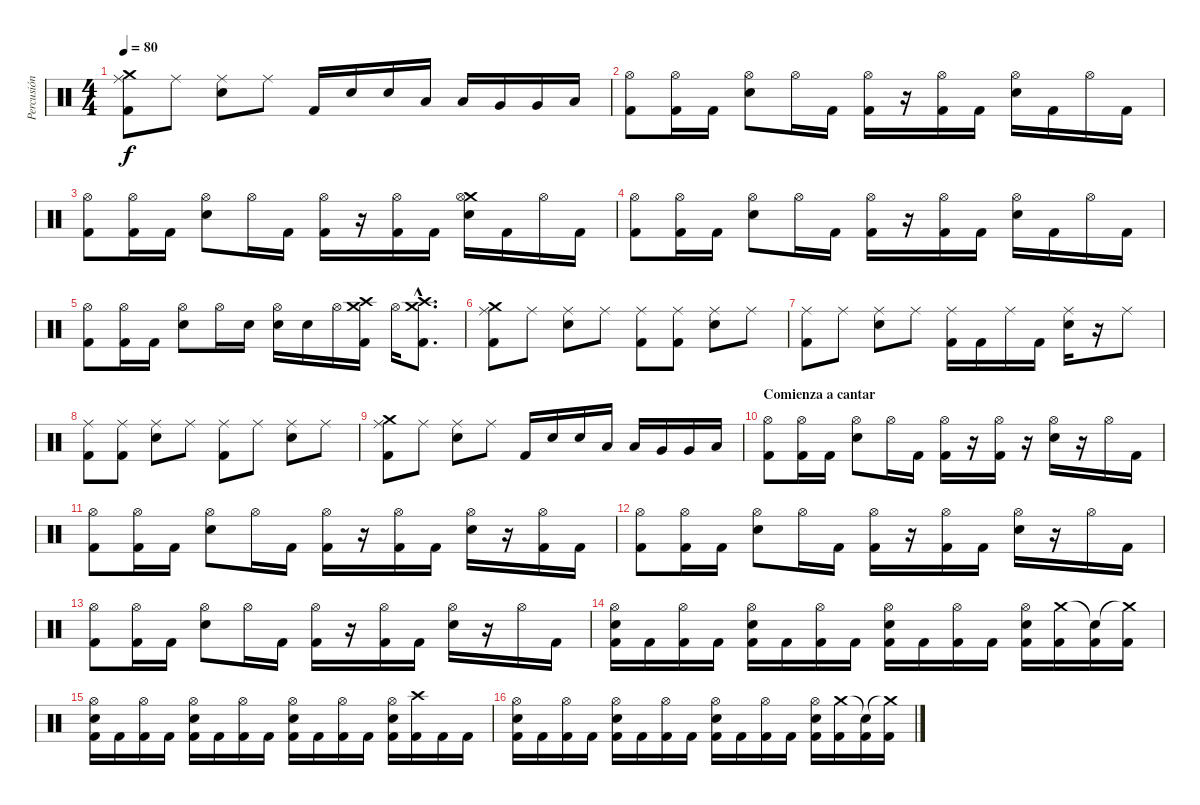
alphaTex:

\track ("Percusión" "Percusión") {instrument percussion}
\staff {score}
\articulation defaults
\ts (4 4)
\tempo 80
\clef neutral
\ks c
("Kick (hit) 2" "Crash medium (hit)" "Ride (middle)").8{dy f} "Ride (middle)".8 ("Electric Snare (hit)" "Ride (middle)").8 "Ride (middle)".8 "Kick (hit) 2".16 "Snare (hit) 2".16 "Snare (hit) 2".16 "Low Tom (hit)".16 "Low Tom (hit)".16 "Very Low Tom (hit)".16 "Very Low Tom (hit)".16 "Low Floor Tom (hit)".16 |
("Kick (hit) 2" "Hi-Hat (open)").8 ("Kick (hit) 2" "Hi-Hat (open)").16 "Kick (hit) 2".16 ("Electric Snare (hit)" "Hi-Hat (open)").8 "Hi-Hat (open)".16 "Kick (hit) 2".16 ("Kick (hit) 2" "Hi-Hat (open)").16 r.16 ("Kick (hit) 2" "Hi-Hat (open)").16 "Kick (hit) 2".16 ("Electric Snare (hit)" "Hi-Hat (open)").16 "Kick (hit) 2".16 "Hi-Hat (open)".16 "Kick (hit) 2".16 |
("Kick (hit) 2" "Hi-Hat (open)").8 ("Kick (hit) 2" "Hi-Hat (open)").16 "Kick (hit) 2".16 ("Electric Snare (hit)" "Hi-Hat (open)").8 "Hi-Hat (open)".16 "Kick (hit) 2".16 ("Kick (hit) 2" "Hi-Hat (open)").16 r.16 ("Kick (hit) 2" "Hi-Hat (open)").16 "Kick (hit) 2".16 ("Electric Snare (hit)" "Crash medium (hit)" "Hi-Hat (open)").16 "Kick (hit) 2".16 "Hi-Hat (open)".16 "Kick (hit) 2".16 |
("Kick (hit) 2" "Hi-Hat (open)").8 ("Kick (hit) 2" "Hi-Hat (open)").16 "Kick (hit) 2".16 ("Electric Snare (hit)" "Hi-Hat (open)").8 "Hi-Hat (open)".16 "Kick (hit) 2".16 ("Kick (hit) 2" "Hi-Hat (open)").16 r.16 ("Kick (hit) 2" "Hi-Hat (open)").16 "Kick (hit) 2".16 ("Electric Snare (hit)" "Hi-Hat (open)").16 "Kick (hit) 2".16 "Hi-Hat (open)".16 "Kick (hit) 2".16 |
("Kick (hit) 2" "Hi-Hat (open)").8 ("Kick (hit) 2" "Hi-Hat (open)").16 "Kick (hit) 2".16 ("Electric Snare (hit)" "Hi-Hat (open)").8 "Hi-Hat (open)".16 "Electric Snare (hit)".16 ("Electric Snare (hit)" "Hi-Hat (open)").16 "Electric Snare (hit)".16 "Hi-Hat (open)".16 ("Kick (hit) 2" "Crash high (hit)" "Crash medium (hit)").16 "Hi-Hat (open)".16 ("Kick (hit) 2"{hac} "Crash high (hit)"{hac} "Crash medium (hit)"{hac}).8{d} |
("Kick (hit) 2" "Crash medium (hit)" "Ride (middle)").8 "Ride (middle)".8 ("Electric Snare (hit)" "Ride (middle)").8 "Ride (middle)".8 ("Kick (hit) 2" "Ride (middle)").8 ("Kick (hit) 2" "Ride (middle)").8 ("Electric Snare (hit)" "Ride (middle)").8 "Ride (middle)".8 |
("Kick (hit) 2" "Ride (middle)").8 "Ride (middle)".8 ("Electric Snare (hit)" "Ride (middle)").8 "Ride (middle)".8 ("Kick (hit) 2" "Ride (middle)").16 "Kick (hit) 2".16 "Ride (middle)".16 "Kick (hit) 2".16 ("Electric Snare (hit)" "Ride (middle)").16 r.16 "Ride (middle)".8 |
("Kick (hit) 2" "Ride (middle)").8 ("Kick (hit) 2" "Ride (middle)").8 ("Electric Snare (hit)" "Ride (middle)").8 "Ride (middle)".8 ("Kick (hit) 2" "Ride (middle)").8 "Ride (middle)".8 ("Electric Snare (hit)" "Ride (middle)").8 "Ride (middle)".8 |
("Kick (hit) 2" "Crash medium (hit)" "Ride (middle)").8 "Ride (middle)".8 ("Electric Snare (hit)" "Ride (middle)").8 "Ride (middle)".8 "Kick (hit) 2".16 "Snare (hit) 2".16 "Snare (hit) 2".16 "Low Tom (hit)".16 "Low Tom (hit)".16 "Very Low Tom (hit)".16 "Very Low Tom (hit)".16 "Low Floor Tom (hit)".16 |
\section ("" "Comienza a cantar")
("Kick (hit) 2" "Hi-Hat (open)").8 ("Kick (hit) 2" "Hi-Hat (open)").16 "Kick (hit) 2".16 ("Electric Snare (hit)" "Hi-Hat (open)").8 "Hi-Hat (open)".16 "Kick (hit) 2".16 ("Kick (hit) 2" "Hi-Hat (open)").16 r.16 ("Kick (hit) 2" "Hi-Hat (open)").16 r.16 ("Electric Snare (hit)" "Hi-Hat (open)").16 r.16 "Hi-Hat (open)".16 "Kick (hit) 2".16 |
("Kick (hit) 2" "Hi-Hat (open)").8 ("Kick (hit) 2" "Hi-Hat (open)").16 "Kick (hit) 2".16 ("Electric Snare (hit)" "Hi-Hat (open)").8 "Hi-Hat (open)".16 "Kick (hit) 2".16 ("Kick (hit) 2" "Hi-Hat (open)").16 r.16 ("Kick (hit) 2" "Hi-Hat (open)").16 "Kick (hit) 2".16 ("Electric Snare (hit)" "Hi-Hat (open)").16 r.16 ("Kick (hit) 2" "Hi-Hat (open)").16 "Kick (hit) 2".16 |
("Kick (hit) 2" "Hi-Hat (open)").8 ("Kick (hit) 2" "Hi-Hat (open)").16 "Kick (hit) 2".16 ("Electric Snare (hit)" "Hi-Hat (open)").8 "Hi-Hat (open)".16 "Kick (hit) 2".16 ("Kick (hit) 2" "Hi-Hat (open)").16 r.16 ("Kick (hit) 2" "Hi-Hat (open)").16 "Kick (hit) 2".16 ("Electric Snare (hit)" "Hi-Hat (open)").16 r.16 "Hi-Hat (open)".16 "Kick (hit) 2".16 |
("Kick (hit) 2" "Hi-Hat (open)").8 ("Kick (hit) 2" "Hi-Hat (open)").16 "Kick (hit) 2".16 ("Electric Snare (hit)" "Hi-Hat (open)").8 "Hi-Hat (open)".16 "Kick (hit) 2".16 ("Kick (hit) 2" "Hi-Hat (open)").16 r.16 ("Kick (hit) 2" "Hi-Hat (open)").16 "Kick (hit) 2".16 ("Electric Snare (hit)" "Hi-Hat (open)").16 r.16 "Hi-Hat (open)".16 "Kick (hit) 2".16 |
("Kick (hit) 2" "Hi-Hat (open)" "Electric Snare (hit)").16 "Kick (hit) 2".16 ("Kick (hit) 2" "Hi-Hat (open)").16 "Kick (hit) 2".16 ("Kick (hit) 2" "Hi-Hat (open)" "Electric Snare (hit)").16 "Kick (hit) 2".16 ("Kick (hit) 2" "Hi-Hat (open)").16 "Kick (hit) 2".16 ("Kick (hit) 2" "Hi-Hat (open)" "Electric Snare (hit)").16 "Kick (hit) 2".16 ("Kick (hit) 2" "Hi-Hat (open)").16 "Kick (hit) 2".16 ("Kick (hit) 2" "Hi-Hat (open)" "Electric Snare (hit)").16 ("Kick (hit) 2" "Crash medium (hit)").16 ("Kick (hit) 2" "Snare (hit)"{t}).16 ("Kick (hit) 2" "Crash medium (hit)"{t}).16 |
("Kick (hit) 2" "Hi-Hat (open)" "Electric Snare (hit)").16 "Kick (hit) 2".16 ("Kick (hit) 2" "Hi-Hat (open)").16 "Kick (hit) 2".16 ("Kick (hit) 2" "Hi-Hat (open)" "Electric Snare (hit)").16 "Kick (hit) 2".16 ("Kick (hit) 2" "Hi-Hat (open)").16 "Kick (hit) 2".16 ("Kick (hit) 2" "Hi-Hat (open)" "Electric Snare (hit)").16 "Kick (hit) 2".16 ("Kick (hit) 2" "Hi-Hat (open)").16 "Kick (hit) 2".16 ("Kick (hit) 2" "Hi-Hat (open)" "Electric Snare (hit)").16 ("Kick (hit) 2" "Crash high (hit)").16 "Kick (hit) 2".16 "Kick (hit) 2".16 |
("Kick (hit) 2" "Hi-Hat (open)" "Electric Snare (hit)").16 "Kick (hit) 2".16 ("Kick (hit) 2" "Hi-Hat (open)").16 "Kick (hit) 2".16 ("Kick (hit) 2" "Hi-Hat (open)" "Electric Snare (hit)").16 "Kick (hit) 2".16 ("Kick (hit) 2" "Hi-Hat (open)").16 "Kick (hit) 2".16 ("Kick (hit) 2" "Hi-Hat (open)" "Electric Snare (hit)").16 "Kick (hit) 2".16 ("Kick (hit) 2" "Hi-Hat (open)").16 "Kick (hit) 2".16 ("Kick (hit) 2" "Hi-Hat (open)" "Electric Snare (hit)").16 ("Kick (hit) 2" "Crash medium (hit)").16 ("Kick (hit) 2" "Snare (hit)"{t}).16 ("Kick (hit) 2" "Crash medium (hit)"{t}).16
